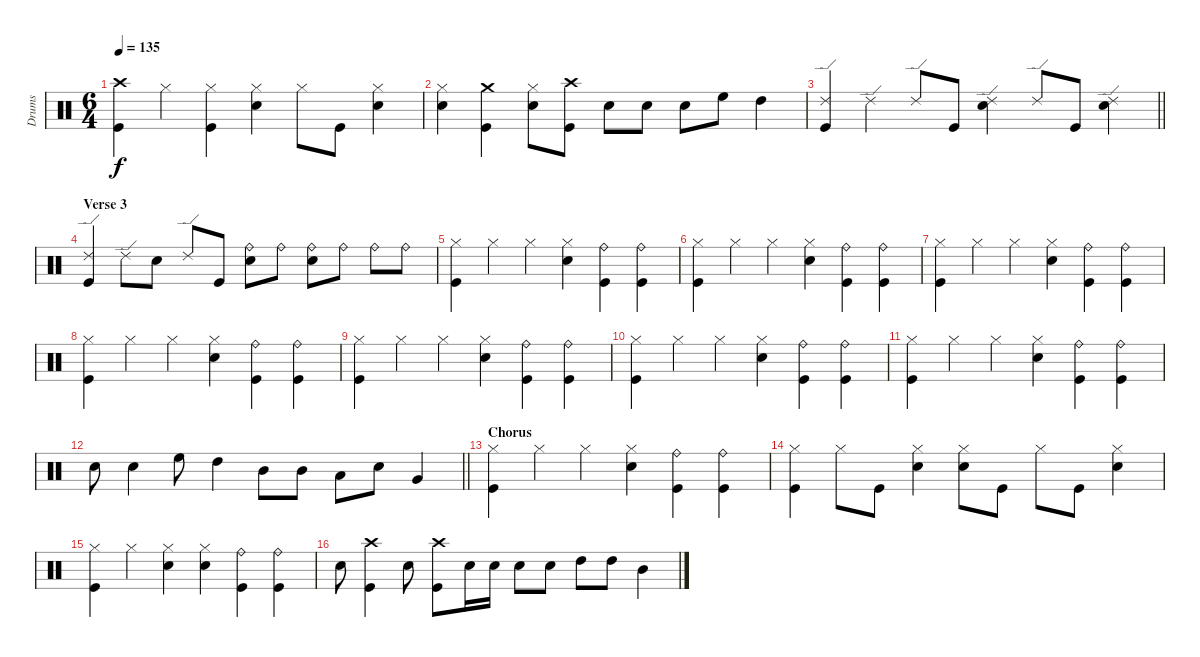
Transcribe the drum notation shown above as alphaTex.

\track ("Drums" "Drums") {instrument percussion}
\staff {score}
\articulation defaults
\ts (6 4)
\tempo 135
\clef neutral
\ks c
("Crash high (hit)" "Kick (hit)").4{dy f} "Hi-Hat (closed)".4 ("Hi-Hat (closed)" "Kick (hit)").4 ("Hi-Hat (closed)" "Electric Snare (hit)").4 "Hi-Hat (closed)".8 "Kick (hit)".8 ("Hi-Hat (closed)" "Electric Snare (hit)").4 |
("Hi-Hat (closed)" "Electric Snare (hit)").4 ("Crash medium (hit)" "Kick (hit)").4 ("Hi-Hat (closed)" "Electric Snare (hit)").8 ("Crash high (hit)" "Kick (hit)").8 "Electric Snare (hit)".8 "Electric Snare (hit)".8 "Electric Snare (hit)".8 "High Floor Tom (hit)".8 "High Tom (hit)".4 |
\barLineRight lightlight
("Ride (edge) 2" "Kick (hit)").4 "Ride (edge) 2".4 "Ride (edge) 2".8 "Kick (hit)".8 ("Ride (edge) 2" "Electric Snare (hit)").4 "Ride (edge) 2".8 "Kick (hit)".8 ("Ride (edge) 2" "Electric Snare (hit)").4 |
\section ("" "Verse 3")
("Ride (edge) 2" "Kick (hit)").4 "Ride (edge) 2".8 "Electric Snare (hit)".8 "Ride (edge) 2".8 "Kick (hit)".8 ("Ride (bell)" "Electric Snare (hit)").8 "Ride (bell)".8 ("Ride (bell)" "Electric Snare (hit)").8 "Ride (bell)".8 "Ride (bell)".8 "Ride (bell)".8 |
("Hi-Hat (closed)" "Kick (hit)").4 "Hi-Hat (closed)".4 "Hi-Hat (closed)".4 ("Hi-Hat (closed)" "Electric Snare (hit)").4 ("Ride (bell)" "Kick (hit)").4 ("Ride (bell)" "Kick (hit)").4 |
("Hi-Hat (closed)" "Kick (hit)").4 "Hi-Hat (closed)".4 "Hi-Hat (closed)".4 ("Hi-Hat (closed)" "Electric Snare (hit)").4 ("Ride (bell)" "Kick (hit)").4 ("Ride (bell)" "Kick (hit)").4 |
("Hi-Hat (closed)" "Kick (hit)").4 "Hi-Hat (closed)".4 "Hi-Hat (closed)".4 ("Hi-Hat (closed)" "Electric Snare (hit)").4 ("Ride (bell)" "Kick (hit)").4 ("Ride (bell)" "Kick (hit)").4 |
("Hi-Hat (closed)" "Kick (hit)").4 "Hi-Hat (closed)".4 "Hi-Hat (closed)".4 ("Hi-Hat (closed)" "Electric Snare (hit)").4 ("Ride (bell)" "Kick (hit)").4 ("Ride (bell)" "Kick (hit)").4 |
("Hi-Hat (closed)" "Kick (hit)").4 "Hi-Hat (closed)".4 "Hi-Hat (closed)".4 ("Hi-Hat (closed)" "Electric Snare (hit)").4 ("Ride (bell)" "Kick (hit)").4 ("Ride (bell)" "Kick (hit)").4 |
("Hi-Hat (closed)" "Kick (hit)").4 "Hi-Hat (closed)".4 "Hi-Hat (closed)".4 ("Hi-Hat (closed)" "Electric Snare (hit)").4 ("Ride (bell)" "Kick (hit)").4 ("Ride (bell)" "Kick (hit)").4 |
("Hi-Hat (closed)" "Kick (hit)").4 "Hi-Hat (closed)".4 "Hi-Hat (closed)".4 ("Hi-Hat (closed)" "Electric Snare (hit)").4 ("Ride (bell)" "Kick (hit)").4 ("Ride (bell)" "Kick (hit)").4 |
\barLineRight lightlight "Electric Snare (hit)".8 "Electric Snare (hit)".4 "High Floor Tom (hit)".8 "High Tom (hit)".4 "Mid Tom (hit)".8 "Mid Tom (hit)".8 "Low Tom (hit)".8 "Electric Snare (hit)".8 "Very Low Tom (hit)".4
|
\section ("" "Chorus")
("Hi-Hat (closed)" "Kick (hit)").4 "Hi-Hat (closed)".4 "Hi-Hat (closed)".4 ("Hi-Hat (closed)" "Electric Snare (hit)").4 ("Ride (bell)" "Kick (hit)").4 ("Ride (bell)" "Kick (hit)").4 |
("Hi-Hat (closed)" "Kick (hit)").4 "Hi-Hat (closed)".8 "Kick (hit)".8 ("Hi-Hat (closed)" "Electric Snare (hit)").4 ("Hi-Hat (closed)" "Electric Snare (hit)").8 "Kick (hit)".8 "Hi-Hat (closed)".8 "Kick (hit)".8 ("Hi-Hat (closed)" "Electric Snare (hit)").4 |
("Hi-Hat (closed)" "Kick (hit)").4 "Hi-Hat (closed)".4 ("Hi-Hat (closed)" "Electric Snare (hit)").4 ("Hi-Hat (closed)" "Electric Snare (hit)").4 ("Ride (bell)" "Kick (hit)").4 ("Ride (bell)" "Kick (hit)").4 |
"Electric Snare (hit)".8 ("Crash high (hit)" "Kick (hit)").4 "Electric Snare (hit)".8 ("Crash high (hit)" "Kick (hit)").8 "Electric Snare (hit)".16 "Electric Snare (hit)".16 "Electric Snare (hit)".8 "Electric Snare (hit)".8 "High Tom (hit)".8 "High Tom (hit)".8 "Mid Tom (hit)".4
